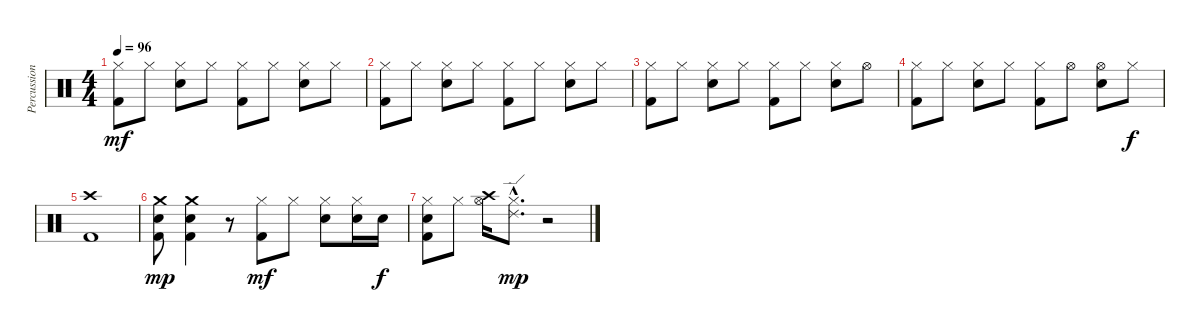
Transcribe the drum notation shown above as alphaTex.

\track ("Percussion - Roger Taylor" "Percussion") {instrument percussion}
\staff {score}
\articulation defaults
\ts (4 4)
\tempo 96
\clef neutral
\ks c
("Hi-Hat (closed)" "Kick (hit) 2").8{dy mf} "Hi-Hat (closed)".8 ("Hi-Hat (closed)" "Electric Snare (hit)").8 "Hi-Hat (closed)".8 ("Hi-Hat (closed)" "Kick (hit) 2").8 "Hi-Hat (closed)".8 ("Hi-Hat (closed)" "Electric Snare (hit)").8 "Hi-Hat (closed)".8 |
("Hi-Hat (closed)" "Kick (hit) 2").8 "Hi-Hat (closed)".8 ("Hi-Hat (closed)" "Electric Snare (hit)").8 "Hi-Hat (closed)".8 ("Hi-Hat (closed)" "Kick (hit) 2").8 "Hi-Hat (closed)".8 ("Hi-Hat (closed)" "Electric Snare (hit)").8 "Hi-Hat (closed)".8 |
("Hi-Hat (closed)" "Kick (hit) 2").8 "Hi-Hat (closed)".8 ("Hi-Hat (closed)" "Electric Snare (hit)").8 "Hi-Hat (closed)".8 ("Hi-Hat (closed)" "Kick (hit) 2").8 "Hi-Hat (closed)".8 ("Hi-Hat (closed)" "Electric Snare (hit)").8 "Hi-Hat (open)".8 |
("Hi-Hat (closed)" "Kick (hit) 2").8 "Hi-Hat (closed)".8 ("Hi-Hat (closed)" "Electric Snare (hit)").8 "Hi-Hat (closed)".8 ("Hi-Hat (closed)" "Kick (hit) 2").8 "Hi-Hat (open)".8 ("Hi-Hat (open)" "Electric Snare (hit)").8 "Hi-Hat (closed)".8{dy f} |
("Crash high (hit)" "Kick (hit) 2").1 |
("Crash medium (hit)" "Electric Snare (hit)" "Kick (hit) 2").8{dy mp} ("Crash medium (hit)" "Electric Snare (hit)" "Kick (hit) 2").4 r.8 ("Hi-Hat (closed)" "Kick (hit) 2").8{dy mf} "Hi-Hat (closed)".8 ("Hi-Hat (closed)" "Electric Snare (hit)").8 ("Hi-Hat (closed)" "Snare (hit) 2").16 "Electric Snare (hit)".16{dy f} |
("Hi-Hat (closed)" "Snare (hit) 2" "Kick (hit) 2").8 "Hi-Hat (closed)".8 ("Crash high (hit)" "Hi-Hat (open)").16 ("Ride (edge) 2"{hac} "Hi-Hat (closed)"{hac}).8{d dy mp} r.2
